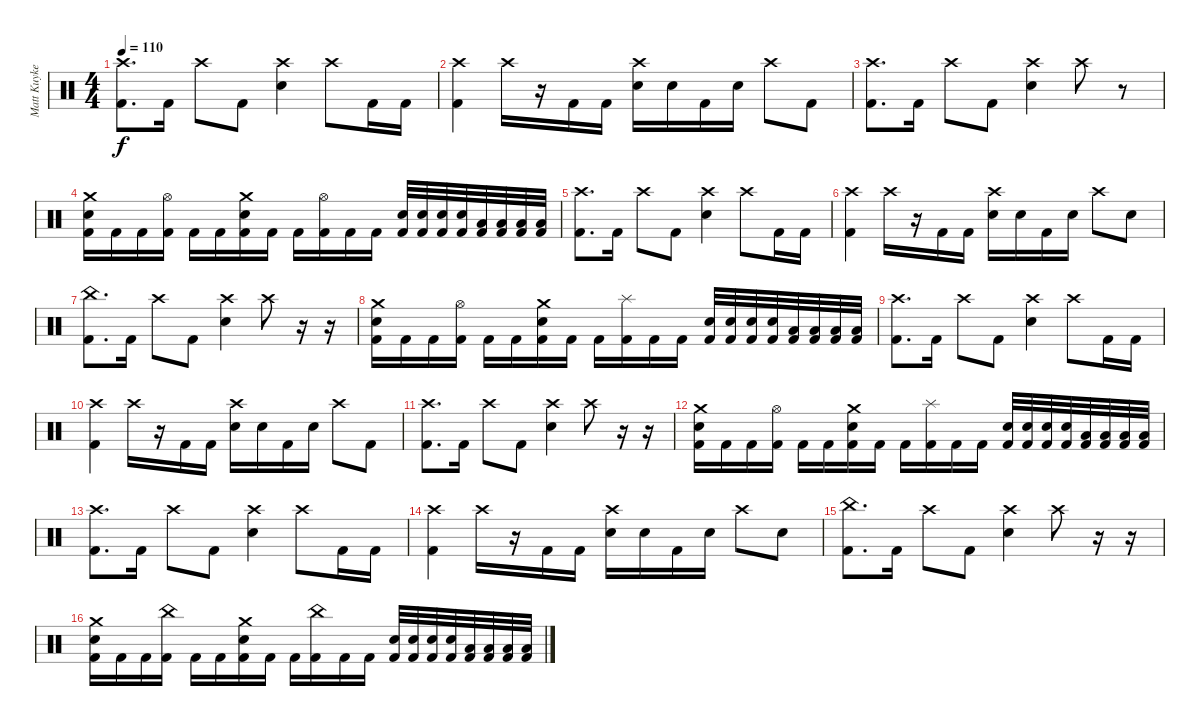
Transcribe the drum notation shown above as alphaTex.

\track ("Matt Kuykendall" "Matt Kuyke") {instrument percussion}
\staff {score}
\articulation defaults
\ts (4 4)
\tempo 110
\clef neutral
\ks c
("Crash high (hit)" "Kick (hit) 2").8{d dy f} "Kick (hit) 2".16 "Crash high (hit)".8 "Kick (hit) 2".8 ("Crash high (hit)" "Electric Snare (hit)").4 "Crash high (hit)".8 "Kick (hit) 2".16 "Kick (hit) 2".16 |
("Crash high (hit)" "Kick (hit) 2").4 "Crash high (hit)".16 r.16 "Kick (hit) 2".16 "Kick (hit) 2".16 ("Crash high (hit)" "Electric Snare (hit)").16 "Electric Snare (hit)".16 "Kick (hit) 2".16 "Electric Snare (hit)".16 "Crash high (hit)".8 "Kick (hit) 2".8 |
("Crash high (hit)" "Kick (hit) 2").8{d} "Kick (hit) 2".16 "Crash high (hit)".8 "Kick (hit) 2".8 ("Crash high (hit)" "Electric Snare (hit)").4 "Crash high (hit)".8 r.8 |
("Crash medium (hit)" "Electric Snare (hit)" "Kick (hit) 2").16 "Kick (hit) 2".16 "Kick (hit) 2".16 ("Hi-Hat (open)" "Kick (hit) 2").16 "Kick (hit) 2".16 "Kick (hit) 2".16 ("Crash medium (hit)" "Electric Snare (hit)" "Kick (hit) 2").16 "Kick (hit) 2".16 "Kick (hit) 2".16 ("Hi-Hat (open)" "Kick (hit) 2").16 "Kick (hit) 2".16 "Kick (hit) 2".16 ("Electric Snare (hit)" "Kick (hit) 2").32 ("Electric Snare (hit)" "Kick (hit) 2").32 ("Electric Snare (hit)" "Kick (hit) 2").32 ("Electric Snare (hit)" "Kick (hit) 2").32 ("Low Tom (hit)" "Kick (hit) 2").32 ("Low Tom (hit)" "Kick (hit) 2").32 ("Low Tom (hit)" "Kick (hit) 2").32 ("Low Tom (hit)" "Kick (hit) 2").32 |
("Crash high (hit)" "Kick (hit) 2").8{d} "Kick (hit) 2".16 "Crash high (hit)".8 "Kick (hit) 2".8 ("Crash high (hit)" "Electric Snare (hit)").4 "Crash high (hit)".8 "Kick (hit) 2".16 "Kick (hit) 2".16 |
("Crash high (hit)" "Kick (hit) 2").4 "Crash high (hit)".16 r.16 "Kick (hit) 2".16 "Kick (hit) 2".16 ("Crash high (hit)" "Electric Snare (hit)").16 "Electric Snare (hit)".16 "Kick (hit) 2".16 "Electric Snare (hit)".16 "Crash high (hit)".8 "Electric Snare (hit)".8 |
("China (hit)" "Kick (hit) 2").8{d} "Kick (hit) 2".16 "Crash high (hit)".8 "Kick (hit) 2".8 ("Crash high (hit)" "Electric Snare (hit)").4 "Crash high (hit)".8 r.16 r.16 |
("Crash medium (hit)" "Electric Snare (hit)" "Kick (hit) 2").16 "Kick (hit) 2".16 "Kick (hit) 2".16 ("Hi-Hat (open)" "Kick (hit) 2").16 "Kick (hit) 2".16 "Kick (hit) 2".16 ("Crash medium (hit)" "Electric Snare (hit)" "Kick (hit) 2").16 "Kick (hit) 2".16 "Kick (hit) 2".16 ("Splash (hit)" "Kick (hit) 2").16 "Kick (hit) 2".16 "Kick (hit) 2".16 ("Electric Snare (hit)" "Kick (hit) 2").32 ("Electric Snare (hit)" "Kick (hit) 2").32 ("Electric Snare (hit)" "Kick (hit) 2").32 ("Electric Snare (hit)" "Kick (hit) 2").32 ("Low Tom (hit)" "Kick (hit) 2").32 ("Low Tom (hit)" "Kick (hit) 2").32 ("Low Tom (hit)" "Kick (hit) 2").32 ("Low Tom (hit)" "Kick (hit) 2").32 |
("Crash high (hit)" "Kick (hit) 2").8{d} "Kick (hit) 2".16 "Crash high (hit)".8 "Kick (hit) 2".8 ("Crash high (hit)" "Electric Snare (hit)").4 "Crash high (hit)".8 "Kick (hit) 2".16 "Kick (hit) 2".16 |
("Crash high (hit)" "Kick (hit) 2").4 "Crash high (hit)".16 r.16 "Kick (hit) 2".16 "Kick (hit) 2".16 ("Crash high (hit)" "Electric Snare (hit)").16 "Electric Snare (hit)".16 "Kick (hit) 2".16 "Electric Snare (hit)".16 "Crash high (hit)".8 "Kick (hit) 2".8 |
("Crash high (hit)" "Kick (hit) 2").8{d} "Kick (hit) 2".16 "Crash high (hit)".8 "Kick (hit) 2".8 ("Crash high (hit)" "Electric Snare (hit)").4 "Crash high (hit)".8 r.16 r.16 |
("Crash medium (hit)" "Electric Snare (hit)" "Kick (hit) 2").16 "Kick (hit) 2".16 "Kick (hit) 2".16 ("Hi-Hat (open)" "Kick (hit) 2").16 "Kick (hit) 2".16 "Kick (hit) 2".16 ("Crash medium (hit)" "Electric Snare (hit)" "Kick (hit) 2").16 "Kick (hit) 2".16 "Kick (hit) 2".16 ("Splash (hit)" "Kick (hit) 2").16 "Kick (hit) 2".16 "Kick (hit) 2".16 ("Electric Snare (hit)" "Kick (hit) 2").32 ("Electric Snare (hit)" "Kick (hit) 2").32 ("Electric Snare (hit)" "Kick (hit) 2").32 ("Electric Snare (hit)" "Kick (hit) 2").32 ("Low Tom (hit)" "Kick (hit) 2").32 ("Low Tom (hit)" "Kick (hit) 2").32 ("Low Tom (hit)" "Kick (hit) 2").32 ("Low Tom (hit)" "Kick (hit) 2").32 |
("Crash high (hit)" "Kick (hit) 2").8{d} "Kick (hit) 2".16 "Crash high (hit)".8 "Kick (hit) 2".8 ("Crash high (hit)" "Electric Snare (hit)").4 "Crash high (hit)".8 "Kick (hit) 2".16 "Kick (hit) 2".16 |
("Crash high (hit)" "Kick (hit) 2").4 "Crash high (hit)".16 r.16 "Kick (hit) 2".16 "Kick (hit) 2".16 ("Crash high (hit)" "Electric Snare (hit)").16 "Electric Snare (hit)".16 "Kick (hit) 2".16 "Electric Snare (hit)".16 "Crash high (hit)".8 "Electric Snare (hit)".8 |
("China (hit)" "Kick (hit) 2").8{d} "Kick (hit) 2".16 "Crash high (hit)".8 "Kick (hit) 2".8 ("Crash high (hit)" "Electric Snare (hit)").4 "Crash high (hit)".8 r.16 r.16 |
("Crash medium (hit)" "Electric Snare (hit)" "Kick (hit) 2").16 "Kick (hit) 2".16 "Kick (hit) 2".16 ("China (hit)" "Kick (hit) 2").16 "Kick (hit) 2".16 "Kick (hit) 2".16 ("Crash medium (hit)" "Electric Snare (hit)" "Kick (hit) 2").16 "Kick (hit) 2".16 "Kick (hit) 2".16 ("China (hit)" "Kick (hit) 2").16 "Kick (hit) 2".16 "Kick (hit) 2".16 ("Electric Snare (hit)" "Kick (hit) 2").32 ("Electric Snare (hit)" "Kick (hit) 2").32 ("Electric Snare (hit)" "Kick (hit) 2").32 ("Electric Snare (hit)" "Kick (hit) 2").32 ("Low Tom (hit)" "Kick (hit) 2").32 ("Low Tom (hit)" "Kick (hit) 2").32 ("Low Tom (hit)" "Kick (hit) 2").32 ("Low Tom (hit)" "Kick (hit) 2").32
